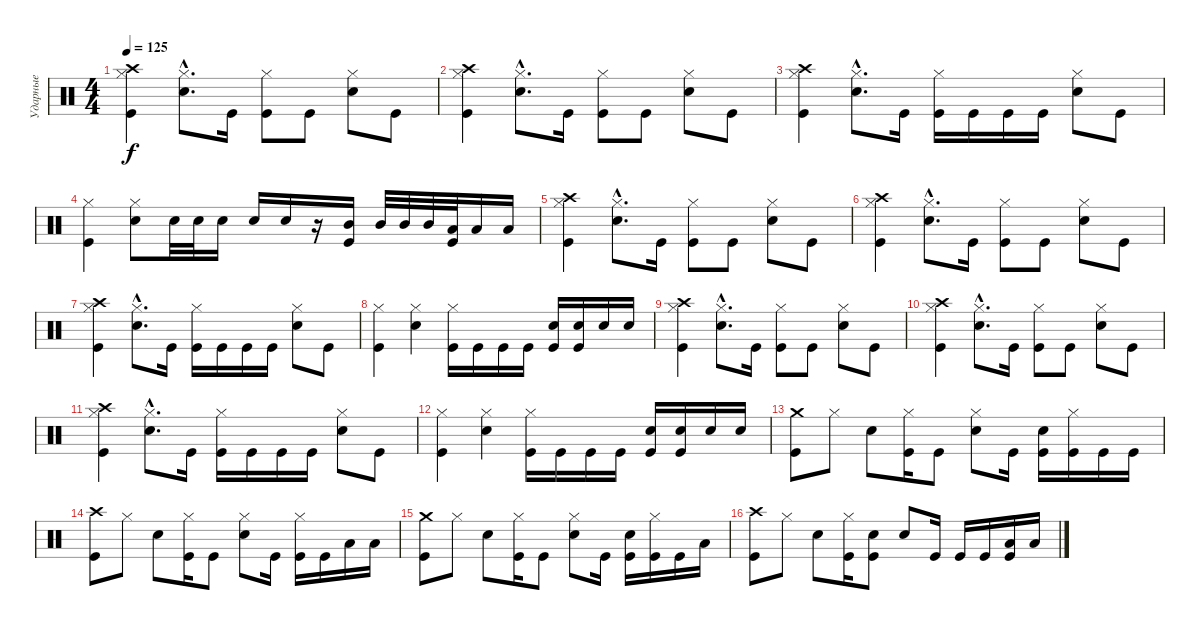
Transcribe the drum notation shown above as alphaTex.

\track ("Ударные" "Ударные") {instrument percussion}
\staff {score}
\articulation defaults
\ts (4 4)
\tempo 125
\clef neutral
\ks c
("Crash high (hit)" "Hi-Hat (closed)" "Kick (hit)").4{dy f} ("Hi-Hat (closed)"{hac} "Electric Snare (hit)"{hac}).8{d} "Kick (hit)".16 ("Hi-Hat (closed)" "Kick (hit)").8 "Kick (hit)".8 ("Hi-Hat (closed)" "Electric Snare (hit)").8 "Kick (hit)".8 |
("Crash high (hit)" "Hi-Hat (closed)" "Kick (hit)").4 ("Hi-Hat (closed)"{hac} "Electric Snare (hit)"{hac}).8{d} "Kick (hit)".16 ("Hi-Hat (closed)" "Kick (hit)").8 "Kick (hit)".8 ("Hi-Hat (closed)" "Electric Snare (hit)").8 "Kick (hit)".8 |
("Crash high (hit)" "Hi-Hat (closed)" "Kick (hit)").4 ("Hi-Hat (closed)"{hac} "Electric Snare (hit)"{hac}).8{d} "Kick (hit)".16 ("Hi-Hat (closed)" "Kick (hit)").16 "Kick (hit)".16 "Kick (hit)".16 "Kick (hit)".16 ("Hi-Hat (closed)" "Electric Snare (hit)").8 "Kick (hit)".8 |
("Hi-Hat (closed)" "Kick (hit)").4 ("Hi-Hat (closed)" "Electric Snare (hit)").8 "Electric Snare (hit)".32 "Electric Snare (hit)".32 "Electric Snare (hit)".16 "Electric Snare (hit)".16 "Electric Snare (hit)".16 r.16 ("Mid Tom (hit)" "Kick (hit)").16 "Mid Tom (hit)".32 "Mid Tom (hit)".32 "Mid Tom (hit)".32 ("Low Tom (hit)" "Kick (hit)").32 "Low Tom (hit)".16 "Low Tom (hit)".16 |
("Crash high (hit)" "Hi-Hat (closed)" "Kick (hit)").4 ("Hi-Hat (closed)"{hac} "Electric Snare (hit)"{hac}).8{d} "Kick (hit)".16 ("Hi-Hat (closed)" "Kick (hit)").8 "Kick (hit)".8 ("Hi-Hat (closed)" "Electric Snare (hit)").8 "Kick (hit)".8 |
("Crash high (hit)" "Hi-Hat (closed)" "Kick (hit)").4 ("Hi-Hat (closed)"{hac} "Electric Snare (hit)"{hac}).8{d} "Kick (hit)".16 ("Hi-Hat (closed)" "Kick (hit)").8 "Kick (hit)".8 ("Hi-Hat (closed)" "Electric Snare (hit)").8 "Kick (hit)".8 |
("Crash high (hit)" "Hi-Hat (closed)" "Kick (hit)").4 ("Hi-Hat (closed)"{hac} "Electric Snare (hit)"{hac}).8{d} "Kick (hit)".16 ("Hi-Hat (closed)" "Kick (hit)").16 "Kick (hit)".16 "Kick (hit)".16 "Kick (hit)".16 ("Hi-Hat (closed)" "Electric Snare (hit)").8 "Kick (hit)".8 |
("Hi-Hat (closed)" "Kick (hit)").4 ("Hi-Hat (closed)" "Electric Snare (hit)").4 ("Hi-Hat (closed)" "Kick (hit)").16 "Kick (hit)".16 "Kick (hit)".16 "Kick (hit)".16 ("Electric Snare (hit)" "Kick (hit)").16 ("Electric Snare (hit)" "Kick (hit)").16 "Electric Snare (hit)".16 "Electric Snare (hit)".16 |
("Crash high (hit)" "Hi-Hat (closed)" "Kick (hit)").4 ("Hi-Hat (closed)"{hac} "Electric Snare (hit)"{hac}).8{d} "Kick (hit)".16 ("Hi-Hat (closed)" "Kick (hit)").8 "Kick (hit)".8 ("Hi-Hat (closed)" "Electric Snare (hit)").8 "Kick (hit)".8 |
("Crash high (hit)" "Hi-Hat (closed)" "Kick (hit)").4 ("Hi-Hat (closed)"{hac} "Electric Snare (hit)"{hac}).8{d} "Kick (hit)".16 ("Hi-Hat (closed)" "Kick (hit)").8 "Kick (hit)".8 ("Hi-Hat (closed)" "Electric Snare (hit)").8 "Kick (hit)".8 |
("Crash high (hit)" "Hi-Hat (closed)" "Kick (hit)").4 ("Hi-Hat (closed)"{hac} "Electric Snare (hit)"{hac}).8{d} "Kick (hit)".16 ("Hi-Hat (closed)" "Kick (hit)").16 "Kick (hit)".16 "Kick (hit)".16 "Kick (hit)".16 ("Hi-Hat (closed)" "Electric Snare (hit)").8 "Kick (hit)".8 |
("Hi-Hat (closed)" "Kick (hit)").4 ("Hi-Hat (closed)" "Electric Snare (hit)").4 ("Hi-Hat (closed)" "Kick (hit)").16 "Kick (hit)".16 "Kick (hit)".16 "Kick (hit)".16 ("Electric Snare (hit)" "Kick (hit)").16 ("Electric Snare (hit)" "Kick (hit)").16 "Electric Snare (hit)".16 "Electric Snare (hit)".16 |
("Crash medium (hit)" "Kick (hit)").8 "Hi-Hat (closed)".8 "Electric Snare (hit)".8 ("Hi-Hat (closed)" "Kick (hit)").16 "Kick (hit)".8 ("Hi-Hat (closed)" "Electric Snare (hit)").8 "Kick (hit)".16 ("Electric Snare (hit)" "Kick (hit)").16 ("Hi-Hat (closed)" "Kick (hit)").16 "Kick (hit)".16 "Kick (hit)".16 |
("Crash high (hit)" "Kick (hit)").8 "Hi-Hat (closed)".8 "Electric Snare (hit)".8 ("Hi-Hat (closed)" "Kick (hit)").16 "Kick (hit)".8 ("Hi-Hat (closed)" "Electric Snare (hit)").8 "Kick (hit)".16 ("Hi-Hat (closed)" "Kick (hit)").16 "Kick (hit)".16 "Low Tom (hit)".16 "Low Tom (hit)".16 |
("Crash medium (hit)" "Kick (hit)").8 "Hi-Hat (closed)".8 "Electric Snare (hit)".8 ("Hi-Hat (closed)" "Kick (hit)").16 "Kick (hit)".8 ("Hi-Hat (closed)" "Electric Snare (hit)").8 "Kick (hit)".16 ("Electric Snare (hit)" "Kick (hit)").16 ("Hi-Hat (closed)" "Kick (hit)").16 "Kick (hit)".16 "Low Tom (hit)".16 |
("Crash high (hit)" "Kick (hit)").8 "Hi-Hat (closed)".8 "Electric Snare (hit)".8 ("Hi-Hat (closed)" "Kick (hit)").16 ("Electric Snare (hit)" "Kick (hit)").8 "Electric Snare (hit)".8 "Kick (hit)".16 "Kick (hit)".16 "Kick (hit)".16 ("Low Tom (hit)" "Kick (hit)").16 "Low Tom (hit)".16
